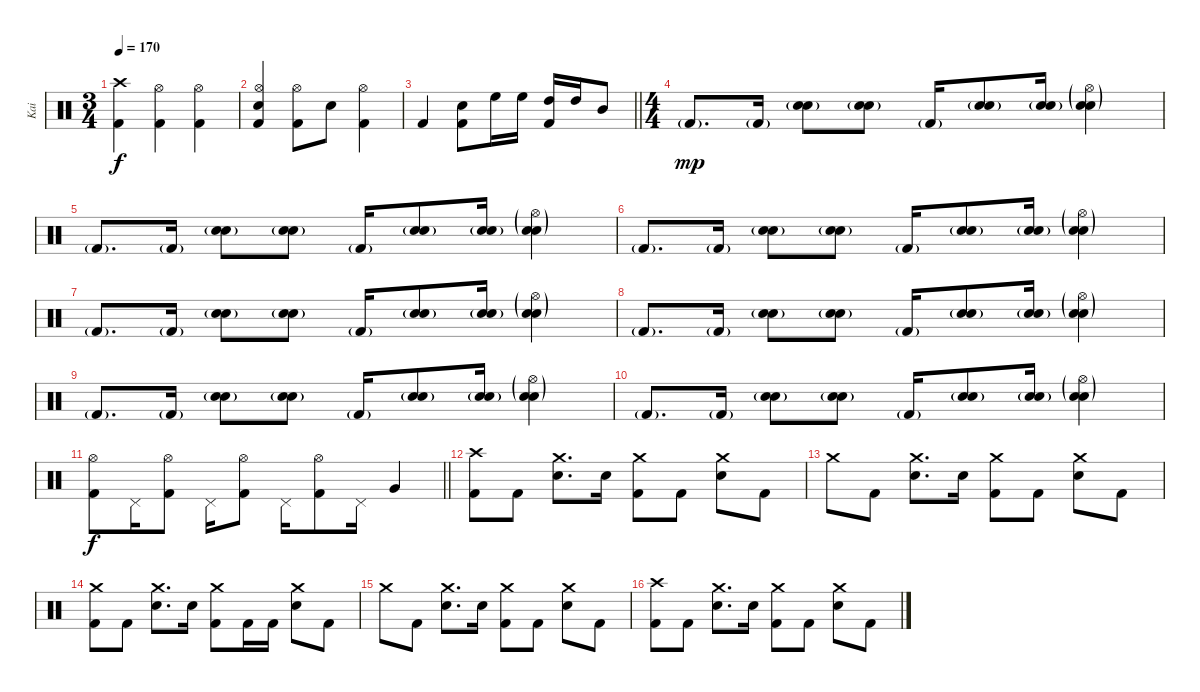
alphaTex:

\track ("Kai" "Kai") {instrument percussion}
\staff {score}
\articulation defaults
\ts (3 4)
\tempo 170
\clef neutral
\ks c
("Crash high (hit)" "Kick (hit) 2").4{dy f} ("Hi-Hat (open)" "Kick (hit) 2").4 ("Hi-Hat (open)" "Kick (hit) 2").4 |
("Hi-Hat (open)" "Electric Snare (hit)" "Kick (hit) 2").4 ("Hi-Hat (open)" "Kick (hit) 2").8 "Electric Snare (hit)".8 ("Hi-Hat (open)" "Kick (hit) 2").4 |
\barLineRight lightlight "Kick (hit) 2".4
("Electric Snare (hit)" "Kick (hit) 2").8 "High Floor Tom (hit)".16 "High Floor Tom (hit)".16 ("High Tom (hit)" "Kick (hit) 2").16 "High Tom (hit)".16 "Mid Tom (hit)".8 |
\ts (4 4)
\section ("" "")
"Kick (hit) 2"{g}.8{d dy mp} "Kick (hit) 2"{g}.16 ("Snare (hit) 2"{g} "Electric Snare (hit)"{g}).8 ("Snare (hit) 2"{g} "Electric Snare (hit)"{g}).8 "Kick (hit) 2"{g}.16 ("Snare (hit) 2"{g} "Electric Snare (hit)"{g}).8 ("Snare (hit) 2"{g} "Electric Snare (hit)"{g}).16 ("Hi-Hat (open)"{g} "Snare (hit) 2"{g} "Electric Snare (hit)"{g}).4 |
"Kick (hit) 2"{g}.8{d} "Kick (hit) 2"{g}.16 ("Snare (hit) 2"{g} "Electric Snare (hit)"{g}).8 ("Snare (hit) 2"{g} "Electric Snare (hit)"{g}).8 "Kick (hit) 2"{g}.16 ("Snare (hit) 2"{g} "Electric Snare (hit)"{g}).8 ("Snare (hit) 2"{g} "Electric Snare (hit)"{g}).16 ("Hi-Hat (open)"{g} "Snare (hit) 2"{g} "Electric Snare (hit)"{g}).4 |
"Kick (hit) 2"{g}.8{d} "Kick (hit) 2"{g}.16 ("Snare (hit) 2"{g} "Electric Snare (hit)"{g}).8 ("Snare (hit) 2"{g} "Electric Snare (hit)"{g}).8 "Kick (hit) 2"{g}.16 ("Snare (hit) 2"{g} "Electric Snare (hit)"{g}).8 ("Snare (hit) 2"{g} "Electric Snare (hit)"{g}).16 ("Hi-Hat (open)"{g} "Snare (hit) 2"{g} "Electric Snare (hit)"{g}).4 |
"Kick (hit) 2"{g}.8{d} "Kick (hit) 2"{g}.16 ("Snare (hit) 2"{g} "Electric Snare (hit)"{g}).8 ("Snare (hit) 2"{g} "Electric Snare (hit)"{g}).8 "Kick (hit) 2"{g}.16 ("Snare (hit) 2"{g} "Electric Snare (hit)"{g}).8 ("Snare (hit) 2"{g} "Electric Snare (hit)"{g}).16 ("Hi-Hat (open)"{g} "Snare (hit) 2"{g} "Electric Snare (hit)"{g}).4 |
"Kick (hit) 2"{g}.8{d} "Kick (hit) 2"{g}.16 ("Snare (hit) 2"{g} "Electric Snare (hit)"{g}).8 ("Snare (hit) 2"{g} "Electric Snare (hit)"{g}).8 "Kick (hit) 2"{g}.16 ("Snare (hit) 2"{g} "Electric Snare (hit)"{g}).8 ("Snare (hit) 2"{g} "Electric Snare (hit)"{g}).16 ("Hi-Hat (open)"{g} "Snare (hit) 2"{g} "Electric Snare (hit)"{g}).4 |
"Kick (hit) 2"{g}.8{d} "Kick (hit) 2"{g}.16 ("Snare (hit) 2"{g} "Electric Snare (hit)"{g}).8 ("Snare (hit) 2"{g} "Electric Snare (hit)"{g}).8 "Kick (hit) 2"{g}.16 ("Snare (hit) 2"{g} "Electric Snare (hit)"{g}).8 ("Snare (hit) 2"{g} "Electric Snare (hit)"{g}).16 ("Hi-Hat (open)"{g} "Snare (hit) 2"{g} "Electric Snare (hit)"{g}).4 |
"Kick (hit) 2"{g}.8{d} "Kick (hit) 2"{g}.16 ("Snare (hit) 2"{g} "Electric Snare (hit)"{g}).8 ("Snare (hit) 2"{g} "Electric Snare (hit)"{g}).8 "Kick (hit) 2"{g}.16 ("Snare (hit) 2"{g} "Electric Snare (hit)"{g}).8 ("Snare (hit) 2"{g} "Electric Snare (hit)"{g}).16 ("Hi-Hat (open)"{g} "Snare (hit) 2"{g} "Electric Snare (hit)"{g}).4 |
\barLineRight lightlight
("Hi-Hat (open)" "Kick (hit) 2").8{dy f} "Pedal Hi-Hat (hit)".16 ("Hi-Hat (open)" "Kick (hit) 2").8 "Pedal Hi-Hat (hit)".16 ("Hi-Hat (open)" "Kick (hit) 2").8 "Pedal Hi-Hat (hit)".16{beam merge} ("Hi-Hat (open)" "Kick (hit) 2").8 "Pedal Hi-Hat (hit)".16 "Very Low Tom (hit)".4 |
\section ("" "")
("Crash high (hit)" "Kick (hit) 2").8 "Kick (hit) 2".8 ("Crash medium (hit)" "Electric Snare (hit)").8{d} "Electric Snare (hit)".16 ("Crash medium (hit)" "Kick (hit) 2").8 "Kick (hit) 2".8 ("Crash medium (hit)" "Electric Snare (hit)").8 "Kick (hit) 2".8 |
"Crash medium (hit)".8 "Kick (hit) 2".8 ("Crash medium (hit)" "Electric Snare (hit)").8{d} "Electric Snare (hit)".16 ("Crash medium (hit)" "Kick (hit) 2").8 "Kick (hit) 2".8 ("Crash medium (hit)" "Electric Snare (hit)").8 "Kick (hit) 2".8 |
("Crash medium (hit)" "Kick (hit) 2").8 "Kick (hit) 2".8 ("Crash medium (hit)" "Electric Snare (hit)").8{d} "Electric Snare (hit)".16 ("Crash medium (hit)" "Kick (hit) 2").8 "Kick (hit) 2".16 "Kick (hit) 2".16 ("Crash medium (hit)" "Electric Snare (hit)").8 "Kick (hit) 2".8 |
"Crash medium (hit)".8 "Kick (hit) 2".8 ("Crash medium (hit)" "Electric Snare (hit)").8{d} "Electric Snare (hit)".16 ("Crash medium (hit)" "Kick (hit) 2").8 "Kick (hit) 2".8 ("Crash medium (hit)" "Electric Snare (hit)").8 "Kick (hit) 2".8 |
("Crash high (hit)" "Kick (hit) 2").8 "Kick (hit) 2".8 ("Crash medium (hit)" "Electric Snare (hit)").8{d} "Electric Snare (hit)".16 ("Crash medium (hit)" "Kick (hit) 2").8 "Kick (hit) 2".8 ("Crash medium (hit)" "Electric Snare (hit)").8 "Kick (hit) 2".8
